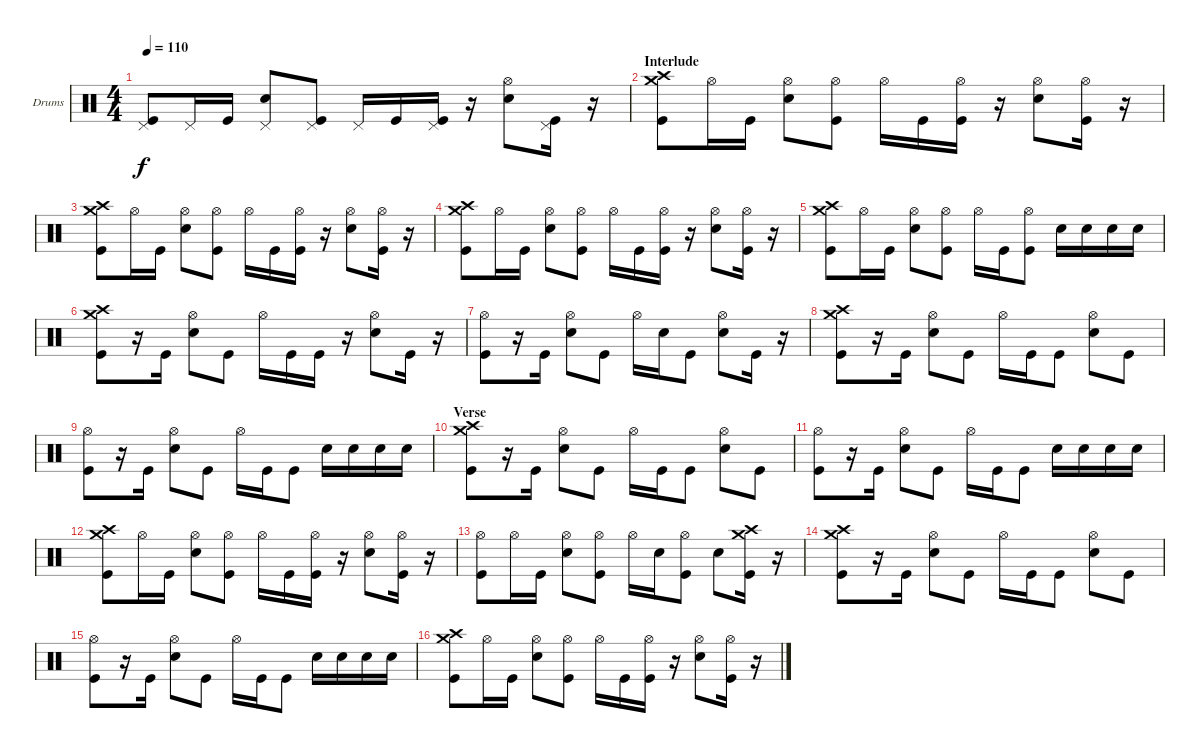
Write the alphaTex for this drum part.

\defaultSystemsLayout 4
\bracketExtendMode nobrackets
\firstSystemTrackNameOrientation horizontal
\otherSystemsTrackNameOrientation horizontal
\track ("Dave Abbruzzese" "Drums") {solo instrument percussion}
\staff {score}
\articulation defaults
\ts (4 4)
\tempo 110
\clef neutral
\ks c
("Kick (hit)" "Pedal Hi-Hat (hit)").8{dy f} "Pedal Hi-Hat (hit)".16 "Kick (hit)".16 ("Snare (hit) 2" "Pedal Hi-Hat (hit)").8 ("Kick (hit)" "Pedal Hi-Hat (hit)").8 "Pedal Hi-Hat (hit)".16 "Kick (hit)".16 ("Kick (hit)" "Pedal Hi-Hat (hit)").16 r.16 ("Snare (hit) 2" "Hi-Hat (open)").8 ("Kick (hit)" "Pedal Hi-Hat (hit)").16 r.16 |
\section ("" "Interlude")
("Crash high (hit)" "Kick (hit)" "Crash medium (hit)").8 "Hi-Hat (open)".16 "Kick (hit)".16 ("Snare (hit) 2" "Hi-Hat (open)").8 ("Kick (hit)" "Hi-Hat (open)").8 "Hi-Hat (open)".16 "Kick (hit)".16 ("Kick (hit)" "Hi-Hat (open)").16 r.16 ("Snare (hit) 2" "Hi-Hat (open)").8 ("Kick (hit)" "Hi-Hat (open)").16 r.16 |
("Crash high (hit)" "Kick (hit)" "Crash medium (hit)").8 "Hi-Hat (open)".16 "Kick (hit)".16 ("Snare (hit) 2" "Hi-Hat (open)").8 ("Kick (hit)" "Hi-Hat (open)").8 "Hi-Hat (open)".16 "Kick (hit)".16 ("Kick (hit)" "Hi-Hat (open)").16 r.16 ("Snare (hit) 2" "Hi-Hat (open)").8 ("Kick (hit)" "Hi-Hat (open)").16 r.16 |
("Crash high (hit)" "Kick (hit)" "Crash medium (hit)").8 "Hi-Hat (open)".16 "Kick (hit)".16 ("Snare (hit) 2" "Hi-Hat (open)").8 ("Kick (hit)" "Hi-Hat (open)").8 "Hi-Hat (open)".16 "Kick (hit)".16 ("Kick (hit)" "Hi-Hat (open)").16 r.16 ("Snare (hit) 2" "Hi-Hat (open)").8 ("Kick (hit)" "Hi-Hat (open)").16 r.16 |
("Crash high (hit)" "Kick (hit)" "Crash medium (hit)").8 "Hi-Hat (open)".16 "Kick (hit)".16 ("Snare (hit) 2" "Hi-Hat (open)").8 ("Kick (hit)" "Hi-Hat (open)").8 "Hi-Hat (open)".16 "Kick (hit)".16 ("Kick (hit)" "Hi-Hat (open)").8 "Snare (hit) 2".16 "Snare (hit) 2".16 "Snare (hit) 2".16 "Snare (hit) 2".16 |
("Crash high (hit)" "Kick (hit)" "Crash medium (hit)").8 r.16 "Kick (hit)".16 ("Snare (hit) 2" "Hi-Hat (open)").8 "Kick (hit)".8 "Hi-Hat (open)".16 "Kick (hit)".16 "Kick (hit)".16 r.16 ("Snare (hit) 2" "Hi-Hat (open)").8 "Kick (hit)".16 r.16 |
("Kick (hit)" "Hi-Hat (open)").8 r.16 "Kick (hit)".16 ("Snare (hit) 2" "Hi-Hat (open)").8 "Kick (hit)".8 "Hi-Hat (open)".16 "Snare (hit) 2".16 "Kick (hit)".8 ("Snare (hit) 2" "Hi-Hat (open)").8 "Kick (hit)".16 r.16 |
("Crash high (hit)" "Kick (hit)" "Crash medium (hit)").8 r.16 "Kick (hit)".16 ("Snare (hit) 2" "Hi-Hat (open)").8 "Kick (hit)".8 "Hi-Hat (open)".16 "Kick (hit)".16 "Kick (hit)".8 ("Snare (hit) 2" "Hi-Hat (open)").8 "Kick (hit)".8 |
("Kick (hit)" "Hi-Hat (open)").8 r.16 "Kick (hit)".16 ("Snare (hit) 2" "Hi-Hat (open)").8 "Kick (hit)".8 "Hi-Hat (open)".16 "Kick (hit)".16 "Kick (hit)".8 "Snare (hit) 2".16 "Snare (hit) 2".16 "Snare (hit) 2".16 "Snare (hit) 2".16 |
\section ("" "Verse")
("Crash high (hit)" "Kick (hit)" "Crash medium (hit)").8 r.16 "Kick (hit)".16 ("Snare (hit) 2" "Hi-Hat (open)").8 "Kick (hit)".8 "Hi-Hat (open)".16 "Kick (hit)".16 "Kick (hit)".8 ("Snare (hit) 2" "Hi-Hat (open)").8 "Kick (hit)".8 |
("Kick (hit)" "Hi-Hat (open)").8 r.16 "Kick (hit)".16 ("Snare (hit) 2" "Hi-Hat (open)").8 "Kick (hit)".8 "Hi-Hat (open)".16 "Kick (hit)".16 "Kick (hit)".8 "Snare (hit) 2".16 "Snare (hit) 2".16 "Snare (hit) 2".16 "Snare (hit) 2".16 |
("Crash high (hit)" "Kick (hit)" "Crash medium (hit)").8 "Hi-Hat (open)".16 "Kick (hit)".16 ("Snare (hit) 2" "Hi-Hat (open)").8 ("Kick (hit)" "Hi-Hat (open)").8 "Hi-Hat (open)".16 "Kick (hit)".16 ("Kick (hit)" "Hi-Hat (open)").16 r.16 ("Snare (hit) 2" "Hi-Hat (open)").8 ("Kick (hit)" "Hi-Hat (open)").16 r.16 |
("Kick (hit)" "Hi-Hat (open)").8 "Hi-Hat (open)".16 "Kick (hit)".16 ("Snare (hit) 2" "Hi-Hat (open)").8 ("Kick (hit)" "Hi-Hat (open)").8 "Hi-Hat (open)".16 "Snare (hit) 2".16 ("Kick (hit)" "Hi-Hat (open)").8 "Snare (hit) 2".8 ("Crash high (hit)" "Kick (hit)" "Crash medium (hit)").16 r.16 |
("Crash high (hit)" "Kick (hit)" "Crash medium (hit)").8 r.16 "Kick (hit)".16 ("Snare (hit) 2" "Hi-Hat (open)").8 "Kick (hit)".8 "Hi-Hat (open)".16 "Kick (hit)".16 "Kick (hit)".8 ("Snare (hit) 2" "Hi-Hat (open)").8 "Kick (hit)".8 |
("Kick (hit)" "Hi-Hat (open)").8 r.16 "Kick (hit)".16 ("Snare (hit) 2" "Hi-Hat (open)").8 "Kick (hit)".8 "Hi-Hat (open)".16 "Kick (hit)".16 "Kick (hit)".8 "Snare (hit) 2".16 "Snare (hit) 2".16 "Snare (hit) 2".16 "Snare (hit) 2".16 |
("Crash high (hit)" "Kick (hit)" "Crash medium (hit)").8 "Hi-Hat (open)".16 "Kick (hit)".16 ("Snare (hit) 2" "Hi-Hat (open)").8 ("Kick (hit)" "Hi-Hat (open)").8 "Hi-Hat (open)".16 "Kick (hit)".16 ("Kick (hit)" "Hi-Hat (open)").16 r.16 ("Snare (hit) 2" "Hi-Hat (open)").8 ("Kick (hit)" "Hi-Hat (open)").16 r.16
